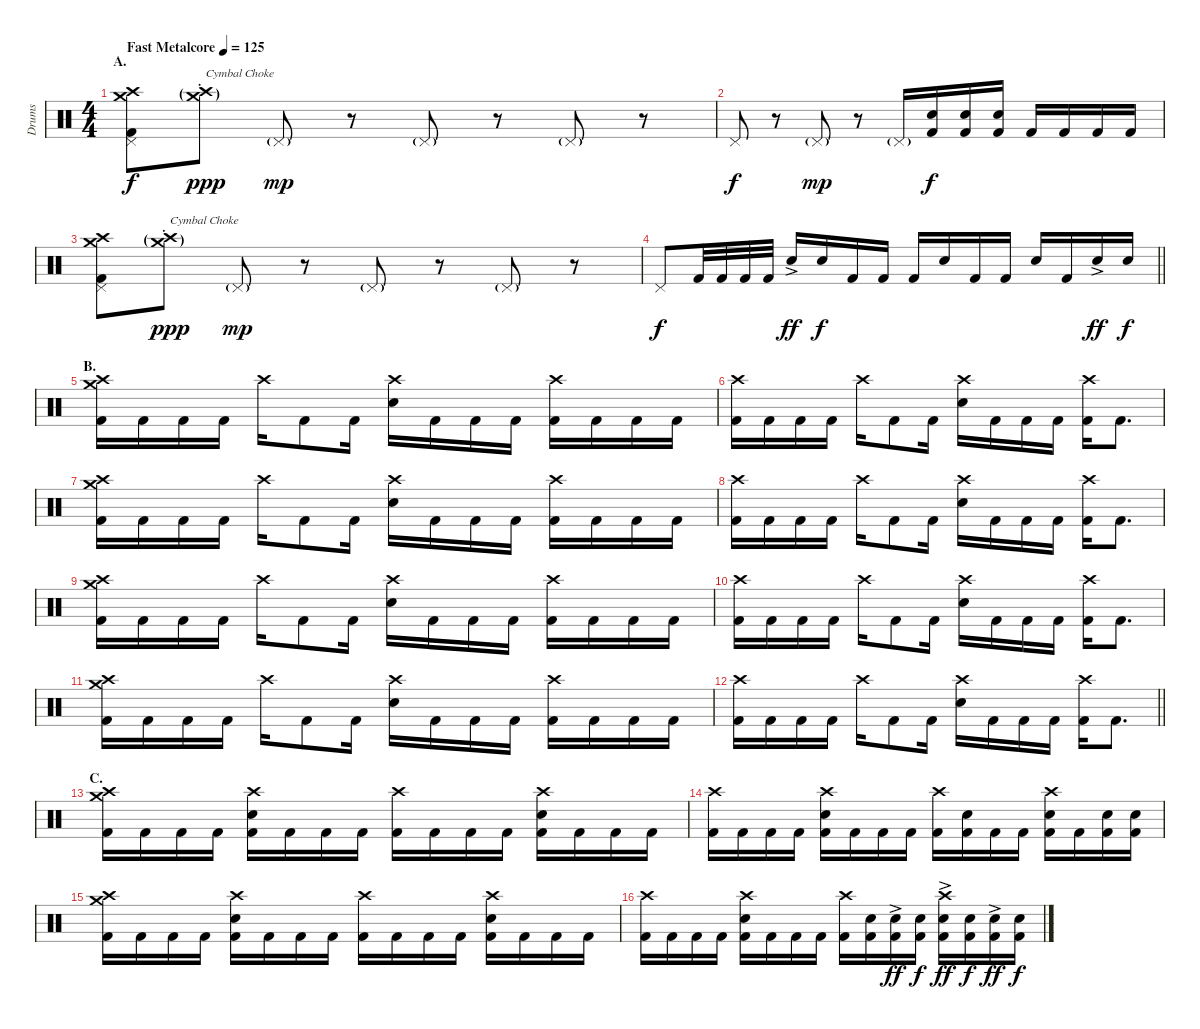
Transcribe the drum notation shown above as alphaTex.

\track ("Drums" "Drums") {instrument percussion}
\staff {score}
\articulation defaults
\ts (4 4)
\section ("" "A.")
\tempo (125 "Fast Metalcore")
\clef neutral
\ks c
("Crash medium (hit)" "Crash high (hit)" "Pedal Hi-Hat (hit)" "Kick (hit) 2").8{dy f} ("Crash medium (hit)"{g st} "Crash high (hit)"{g st}).8{txt "Cymbal Choke" dy ppp} "Pedal Hi-Hat (hit)"{g}.8{dy mp} r.8 "Pedal Hi-Hat (hit)"{g}.8 r.8 "Pedal Hi-Hat (hit)"{g}.8 r.8 |
"Pedal Hi-Hat (hit)".8{dy f} r.8 "Pedal Hi-Hat (hit)"{g}.8{dy mp} r.8 "Pedal Hi-Hat (hit)"{g}.16 ("Electric Snare (hit)" "Kick (hit) 2").16{dy f} ("Electric Snare (hit)" "Kick (hit) 2").16 ("Electric Snare (hit)" "Kick (hit) 2").16 "Kick (hit) 2".16 "Kick (hit) 2".16 "Kick (hit) 2".16 "Kick (hit) 2".16 |
("Crash medium (hit)" "Crash high (hit)" "Pedal Hi-Hat (hit)" "Kick (hit) 2").8 ("Crash medium (hit)"{g st} "Crash high (hit)"{g st}).8{txt "Cymbal Choke" dy ppp} "Pedal Hi-Hat (hit)"{g}.8{dy mp} r.8 "Pedal Hi-Hat (hit)"{g}.8 r.8 "Pedal Hi-Hat (hit)"{g}.8 r.8 |
\barLineRight lightlight "Pedal Hi-Hat (hit)".8{dy f} "Kick (hit) 2".32 "Kick (hit) 2".32 "Kick (hit) 2".32 "Kick (hit) 2".32 "Electric Snare (hit)"{ac}.16{dy ff} "Electric Snare (hit)".16{dy f} "Kick (hit) 2".16 "Kick (hit) 2".16 "Kick (hit) 2".16 "Electric Snare (hit)".16 "Kick (hit) 2".16 "Kick (hit) 2".16 "Electric Snare (hit)".16 "Kick (hit) 2".16 "Electric Snare (hit)"{ac}.16{dy ff} "Electric Snare (hit)".16{dy f}
|
\section ("" "B.")
("Crash medium (hit)" "Crash high (hit)" "Kick (hit) 2").16 "Kick (hit) 2".16 "Kick (hit) 2".16 "Kick (hit) 2".16 "Crash high (hit)".16 "Kick (hit) 2".8 "Kick (hit) 2".16 ("Crash high (hit)" "Electric Snare (hit)").16 "Kick (hit) 2".16 "Kick (hit) 2".16 "Kick (hit) 2".16 ("Crash high (hit)" "Kick (hit) 2").16 "Kick (hit) 2".16 "Kick (hit) 2".16 "Kick (hit) 2".16 |
("Crash high (hit)" "Kick (hit) 2").16 "Kick (hit) 2".16 "Kick (hit) 2".16 "Kick (hit) 2".16 "Crash high (hit)".16 "Kick (hit) 2".8 "Kick (hit) 2".16 ("Crash high (hit)" "Electric Snare (hit)").16 "Kick (hit) 2".16 "Kick (hit) 2".16 "Kick (hit) 2".16 ("Crash high (hit)" "Kick (hit) 2").16 "Kick (hit) 2".8{d} |
("Crash medium (hit)" "Crash high (hit)" "Kick (hit) 2").16 "Kick (hit) 2".16 "Kick (hit) 2".16 "Kick (hit) 2".16 "Crash high (hit)".16 "Kick (hit) 2".8 "Kick (hit) 2".16 ("Crash high (hit)" "Electric Snare (hit)").16 "Kick (hit) 2".16 "Kick (hit) 2".16 "Kick (hit) 2".16 ("Crash high (hit)" "Kick (hit) 2").16 "Kick (hit) 2".16 "Kick (hit) 2".16 "Kick (hit) 2".16 |
("Crash high (hit)" "Kick (hit) 2").16 "Kick (hit) 2".16 "Kick (hit) 2".16 "Kick (hit) 2".16 "Crash high (hit)".16 "Kick (hit) 2".8 "Kick (hit) 2".16 ("Crash high (hit)" "Electric Snare (hit)").16 "Kick (hit) 2".16 "Kick (hit) 2".16 "Kick (hit) 2".16 ("Crash high (hit)" "Kick (hit) 2").16 "Kick (hit) 2".8{d} |
("Crash medium (hit)" "Crash high (hit)" "Kick (hit) 2").16 "Kick (hit) 2".16 "Kick (hit) 2".16 "Kick (hit) 2".16 "Crash high (hit)".16 "Kick (hit) 2".8 "Kick (hit) 2".16 ("Crash high (hit)" "Electric Snare (hit)").16 "Kick (hit) 2".16 "Kick (hit) 2".16 "Kick (hit) 2".16 ("Crash high (hit)" "Kick (hit) 2").16 "Kick (hit) 2".16 "Kick (hit) 2".16 "Kick (hit) 2".16 |
("Crash high (hit)" "Kick (hit) 2").16 "Kick (hit) 2".16 "Kick (hit) 2".16 "Kick (hit) 2".16 "Crash high (hit)".16 "Kick (hit) 2".8 "Kick (hit) 2".16 ("Crash high (hit)" "Electric Snare (hit)").16 "Kick (hit) 2".16 "Kick (hit) 2".16 "Kick (hit) 2".16 ("Crash high (hit)" "Kick (hit) 2").16 "Kick (hit) 2".8{d} |
("Crash medium (hit)" "Crash high (hit)" "Kick (hit) 2").16 "Kick (hit) 2".16 "Kick (hit) 2".16 "Kick (hit) 2".16 "Crash high (hit)".16 "Kick (hit) 2".8 "Kick (hit) 2".16 ("Crash high (hit)" "Electric Snare (hit)").16 "Kick (hit) 2".16 "Kick (hit) 2".16 "Kick (hit) 2".16 ("Crash high (hit)" "Kick (hit) 2").16 "Kick (hit) 2".16 "Kick (hit) 2".16 "Kick (hit) 2".16 |
\barLineRight lightlight
("Crash high (hit)" "Kick (hit) 2").16 "Kick (hit) 2".16 "Kick (hit) 2".16 "Kick (hit) 2".16 "Crash high (hit)".16 "Kick (hit) 2".8 "Kick (hit) 2".16 ("Crash high (hit)" "Electric Snare (hit)").16 "Kick (hit) 2".16 "Kick (hit) 2".16 "Kick (hit) 2".16 ("Crash high (hit)" "Kick (hit) 2").16 "Kick (hit) 2".8{d} |
\section ("" "C.")
("Crash medium (hit)" "Crash high (hit)" "Kick (hit) 2").16 "Kick (hit) 2".16 "Kick (hit) 2".16 "Kick (hit) 2".16 ("Crash high (hit)" "Electric Snare (hit)" "Kick (hit) 2").16 "Kick (hit) 2".16 "Kick (hit) 2".16 "Kick (hit) 2".16 ("Crash high (hit)" "Kick (hit) 2").16 "Kick (hit) 2".16 "Kick (hit) 2".16 "Kick (hit) 2".16 ("Crash high (hit)" "Electric Snare (hit)" "Kick (hit) 2").16 "Kick (hit) 2".16 "Kick (hit) 2".16 "Kick (hit) 2".16 |
("Crash high (hit)" "Kick (hit) 2").16 "Kick (hit) 2".16 "Kick (hit) 2".16 "Kick (hit) 2".16 ("Crash high (hit)" "Electric Snare (hit)" "Kick (hit) 2").16 "Kick (hit) 2".16 "Kick (hit) 2".16 "Kick (hit) 2".16 ("Crash high (hit)" "Kick (hit) 2").16 ("Electric Snare (hit)" "Kick (hit) 2").16 "Kick (hit) 2".16 "Kick (hit) 2".16 ("Crash high (hit)" "Electric Snare (hit)" "Kick (hit) 2").16 "Kick (hit) 2".16 ("Electric Snare (hit)" "Kick (hit) 2").16 ("Electric Snare (hit)" "Kick (hit) 2").16 |
("Crash medium (hit)" "Crash high (hit)" "Kick (hit) 2").16 "Kick (hit) 2".16 "Kick (hit) 2".16 "Kick (hit) 2".16 ("Crash high (hit)" "Electric Snare (hit)" "Kick (hit) 2").16 "Kick (hit) 2".16 "Kick (hit) 2".16 "Kick (hit) 2".16 ("Crash high (hit)" "Kick (hit) 2").16 "Kick (hit) 2".16 "Kick (hit) 2".16 "Kick (hit) 2".16 ("Crash high (hit)" "Electric Snare (hit)" "Kick (hit) 2").16 "Kick (hit) 2".16 "Kick (hit) 2".16 "Kick (hit) 2".16 |
("Crash high (hit)" "Kick (hit) 2").16 "Kick (hit) 2".16 "Kick (hit) 2".16 "Kick (hit) 2".16 ("Crash high (hit)" "Electric Snare (hit)" "Kick (hit) 2").16 "Kick (hit) 2".16 "Kick (hit) 2".16 "Kick (hit) 2".16 ("Crash high (hit)" "Kick (hit) 2").16 ("Electric Snare (hit)" "Kick (hit) 2").16 ("Electric Snare (hit)"{ac} "Kick (hit) 2").16{dy ff} ("Electric Snare (hit)" "Kick (hit) 2").16{dy f} ("Crash high (hit)" "Electric Snare (hit)"{ac} "Kick (hit) 2").16{dy ff} ("Electric Snare (hit)" "Kick (hit) 2").16{dy f} ("Electric Snare (hit)"{ac} "Kick (hit) 2").16{dy ff} ("Electric Snare (hit)" "Kick (hit) 2").16{dy f}
